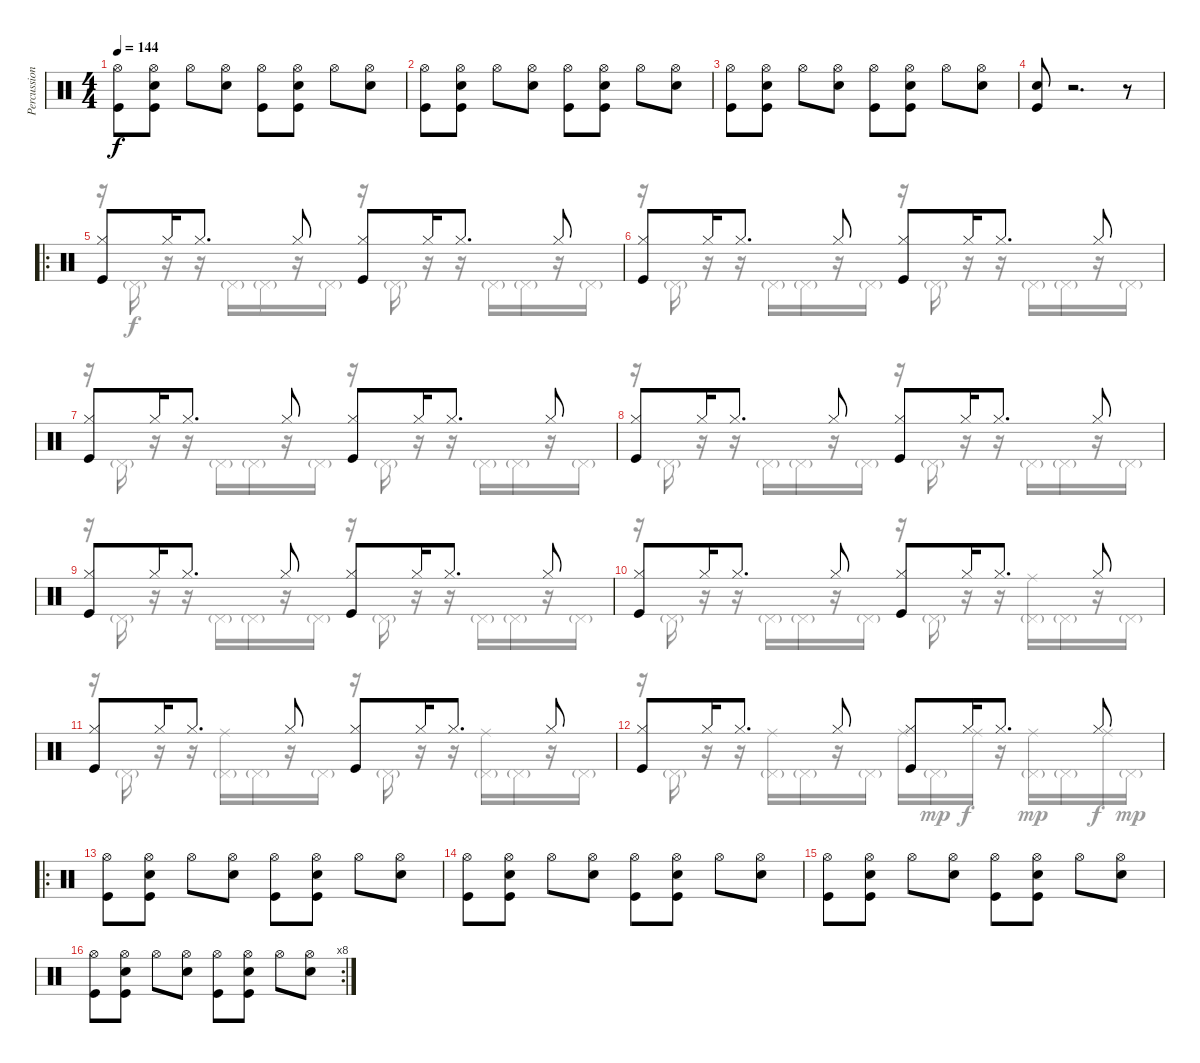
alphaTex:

\track ("Percussion" "Percussion") {instrument percussion}
\staff {score}
\articulation defaults
\voice
\ts (4 4)
\tempo 144
\clef neutral
\ks c
("Hi-Hat (open)" "Kick (hit)").8{dy f} ("Hi-Hat (open)" "Snare (hit) 2" "Kick (hit)").8 "Hi-Hat (open)".8 ("Hi-Hat (open)" "Snare (hit) 2").8 ("Hi-Hat (open)" "Kick (hit)").8 ("Hi-Hat (open)" "Snare (hit) 2" "Kick (hit)").8 "Hi-Hat (open)".8 ("Hi-Hat (open)" "Snare (hit) 2").8 |
("Hi-Hat (open)" "Kick (hit)").8 ("Hi-Hat (open)" "Snare (hit) 2" "Kick (hit)").8 "Hi-Hat (open)".8 ("Hi-Hat (open)" "Snare (hit) 2").8 ("Hi-Hat (open)" "Kick (hit)").8 ("Hi-Hat (open)" "Snare (hit) 2" "Kick (hit)").8 "Hi-Hat (open)".8 ("Hi-Hat (open)" "Snare (hit) 2").8 |
("Hi-Hat (open)" "Kick (hit)").8 ("Hi-Hat (open)" "Snare (hit) 2" "Kick (hit)").8 "Hi-Hat (open)".8 ("Hi-Hat (open)" "Snare (hit) 2").8 ("Hi-Hat (open)" "Kick (hit)").8 ("Hi-Hat (open)" "Snare (hit) 2" "Kick (hit)").8 "Hi-Hat (open)".8 ("Hi-Hat (open)" "Snare (hit) 2").8 |
("Snare (hit) 2" "Kick (hit)").8 r.2{d} r.8 |
\ro
("Hi-Hat (closed)" "Kick (hit)").8 "Hi-Hat (closed)".16 "Hi-Hat (closed)".8{d} "Hi-Hat (closed)".8 ("Hi-Hat (closed)" "Kick (hit)").8 "Hi-Hat (closed)".16 "Hi-Hat (closed)".8{d} "Hi-Hat (closed)".8 |
("Hi-Hat (closed)" "Kick (hit)").8 "Hi-Hat (closed)".16 "Hi-Hat (closed)".8{d} "Hi-Hat (closed)".8 ("Hi-Hat (closed)" "Kick (hit)").8 "Hi-Hat (closed)".16 "Hi-Hat (closed)".8{d} "Hi-Hat (closed)".8 |
("Hi-Hat (closed)" "Kick (hit)").8 "Hi-Hat (closed)".16 "Hi-Hat (closed)".8{d} "Hi-Hat (closed)".8 ("Hi-Hat (closed)" "Kick (hit)").8 "Hi-Hat (closed)".16 "Hi-Hat (closed)".8{d} "Hi-Hat (closed)".8 |
("Hi-Hat (closed)" "Kick (hit)").8 "Hi-Hat (closed)".16 "Hi-Hat (closed)".8{d} "Hi-Hat (closed)".8 ("Hi-Hat (closed)" "Kick (hit)").8 "Hi-Hat (closed)".16 "Hi-Hat (closed)".8{d} "Hi-Hat (closed)".8 |
("Hi-Hat (closed)" "Kick (hit)").8 "Hi-Hat (closed)".16 "Hi-Hat (closed)".8{d} "Hi-Hat (closed)".8 ("Hi-Hat (closed)" "Kick (hit)").8 "Hi-Hat (closed)".16 "Hi-Hat (closed)".8{d} "Hi-Hat (closed)".8 |
("Hi-Hat (closed)" "Kick (hit)").8 "Hi-Hat (closed)".16 "Hi-Hat (closed)".8{d} "Hi-Hat (closed)".8 ("Hi-Hat (closed)" "Kick (hit)").8 "Hi-Hat (closed)".16 "Hi-Hat (closed)".8{d} "Hi-Hat (closed)".8 |
("Hi-Hat (closed)" "Kick (hit)").8 "Hi-Hat (closed)".16 "Hi-Hat (closed)".8{d} "Hi-Hat (closed)".8 ("Hi-Hat (closed)" "Kick (hit)").8 "Hi-Hat (closed)".16 "Hi-Hat (closed)".8{d} "Hi-Hat (closed)".8 |
("Hi-Hat (closed)" "Kick (hit)").8 "Hi-Hat (closed)".16 "Hi-Hat (closed)".8{d} "Hi-Hat (closed)".8 ("Hi-Hat (closed)" "Kick (hit)").8 "Hi-Hat (closed)".16 "Hi-Hat (closed)".8{d} "Hi-Hat (closed)".8 |
\ro
("Hi-Hat (open)" "Kick (hit)").8 ("Hi-Hat (open)" "Snare (hit) 2" "Kick (hit)").8 "Hi-Hat (open)".8 ("Hi-Hat (open)" "Snare (hit) 2").8 ("Hi-Hat (open)" "Kick (hit)").8 ("Hi-Hat (open)" "Snare (hit) 2" "Kick (hit)").8 "Hi-Hat (open)".8 ("Hi-Hat (open)" "Snare (hit) 2").8 |
("Hi-Hat (open)" "Kick (hit)").8 ("Hi-Hat (open)" "Snare (hit) 2" "Kick (hit)").8 "Hi-Hat (open)".8 ("Hi-Hat (open)" "Snare (hit) 2").8 ("Hi-Hat (open)" "Kick (hit)").8 ("Hi-Hat (open)" "Snare (hit) 2" "Kick (hit)").8 "Hi-Hat (open)".8 ("Hi-Hat (open)" "Snare (hit) 2").8 |
("Hi-Hat (open)" "Kick (hit)").8 ("Hi-Hat (open)" "Snare (hit) 2" "Kick (hit)").8 "Hi-Hat (open)".8 ("Hi-Hat (open)" "Snare (hit) 2").8 ("Hi-Hat (open)" "Kick (hit)").8 ("Hi-Hat (open)" "Snare (hit) 2" "Kick (hit)").8 "Hi-Hat (open)".8 ("Hi-Hat (open)" "Snare (hit) 2").8 |
\rc 8
("Hi-Hat (open)" "Kick (hit)").8 ("Hi-Hat (open)" "Snare (hit) 2" "Kick (hit)").8 "Hi-Hat (open)".8 ("Hi-Hat (open)" "Snare (hit) 2").8 ("Hi-Hat (open)" "Kick (hit)").8 ("Hi-Hat (open)" "Snare (hit) 2" "Kick (hit)").8 "Hi-Hat (open)".8 ("Hi-Hat (open)" "Snare (hit) 2").8
\voice
\clef neutral
\ottava regular
\simile none
\ks c
|
|
|
|
r.16 "Pedal Hi-Hat (hit)"{g}.16 r.16 r.16 "Pedal Hi-Hat (hit)"{g}.16 "Pedal Hi-Hat (hit)"{g}.16 r.16 "Pedal Hi-Hat (hit)"{g}.16 r.16 "Pedal Hi-Hat (hit)"{g}.16 r.16 r.16 "Pedal Hi-Hat (hit)"{g}.16 "Pedal Hi-Hat (hit)"{g}.16 r.16 "Pedal Hi-Hat (hit)"{g}.16 |
r.16 "Pedal Hi-Hat (hit)"{g}.16 r.16 r.16 "Pedal Hi-Hat (hit)"{g}.16 "Pedal Hi-Hat (hit)"{g}.16 r.16 "Pedal Hi-Hat (hit)"{g}.16 r.16 "Pedal Hi-Hat (hit)"{g}.16 r.16 r.16 "Pedal Hi-Hat (hit)"{g}.16 "Pedal Hi-Hat (hit)"{g}.16 r.16 "Pedal Hi-Hat (hit)"{g}.16 |
r.16 "Pedal Hi-Hat (hit)"{g}.16 r.16 r.16 "Pedal Hi-Hat (hit)"{g}.16 "Pedal Hi-Hat (hit)"{g}.16 r.16 "Pedal Hi-Hat (hit)"{g}.16 r.16 "Pedal Hi-Hat (hit)"{g}.16 r.16 r.16 "Pedal Hi-Hat (hit)"{g}.16 "Pedal Hi-Hat (hit)"{g}.16 r.16 "Pedal Hi-Hat (hit)"{g}.16 |
r.16 "Pedal Hi-Hat (hit)"{g}.16 r.16 r.16 "Pedal Hi-Hat (hit)"{g}.16 "Pedal Hi-Hat (hit)"{g}.16 r.16 "Pedal Hi-Hat (hit)"{g}.16 r.16 "Pedal Hi-Hat (hit)"{g}.16 r.16 r.16 "Pedal Hi-Hat (hit)"{g}.16 "Pedal Hi-Hat (hit)"{g}.16 r.16 "Pedal Hi-Hat (hit)"{g}.16 |
r.16 "Pedal Hi-Hat (hit)"{g}.16 r.16 r.16 "Pedal Hi-Hat (hit)"{g}.16 "Pedal Hi-Hat (hit)"{g}.16 r.16 "Pedal Hi-Hat (hit)"{g}.16 r.16 "Pedal Hi-Hat (hit)"{g}.16 r.16 r.16 "Pedal Hi-Hat (hit)"{g}.16 "Pedal Hi-Hat (hit)"{g}.16 r.16 "Pedal Hi-Hat (hit)"{g}.16 |
r.16 "Pedal Hi-Hat (hit)"{g}.16 r.16 r.16 "Pedal Hi-Hat (hit)"{g}.16 "Pedal Hi-Hat (hit)"{g}.16 r.16 "Pedal Hi-Hat (hit)"{g}.16 r.16 "Pedal Hi-Hat (hit)"{g}.16 r.16 r.16 ("Ride (middle)" "Pedal Hi-Hat (hit)"{g}).16 "Pedal Hi-Hat (hit)"{g}.16 r.16 "Pedal Hi-Hat (hit)"{g}.16 |
r.16 "Pedal Hi-Hat (hit)"{g}.16 r.16 r.16 ("Ride (middle)" "Pedal Hi-Hat (hit)"{g}).16 "Pedal Hi-Hat (hit)"{g}.16 r.16 "Pedal Hi-Hat (hit)"{g}.16 r.16 "Pedal Hi-Hat (hit)"{g}.16 r.16 r.16 ("Ride (middle)" "Pedal Hi-Hat (hit)"{g}).16 "Pedal Hi-Hat (hit)"{g}.16 r.16 "Pedal Hi-Hat (hit)"{g}.16 |
r.16 "Pedal Hi-Hat (hit)"{g}.16 r.16 r.16 ("Ride (middle)" "Pedal Hi-Hat (hit)"{g}).16 "Pedal Hi-Hat (hit)"{g}.16 r.16 "Pedal Hi-Hat (hit)"{g}.16 "Ride (middle)".16{dy f} "Pedal Hi-Hat (hit)"{g}.16{dy mp} "Ride (middle)".16{dy f} r.16 ("Ride (middle)" "Pedal Hi-Hat (hit)"{g}).16{dy mp} "Pedal Hi-Hat (hit)"{g}.16 "Ride (middle)".16{dy f} "Pedal Hi-Hat (hit)"{g}.16{dy mp} |
|
|
|
